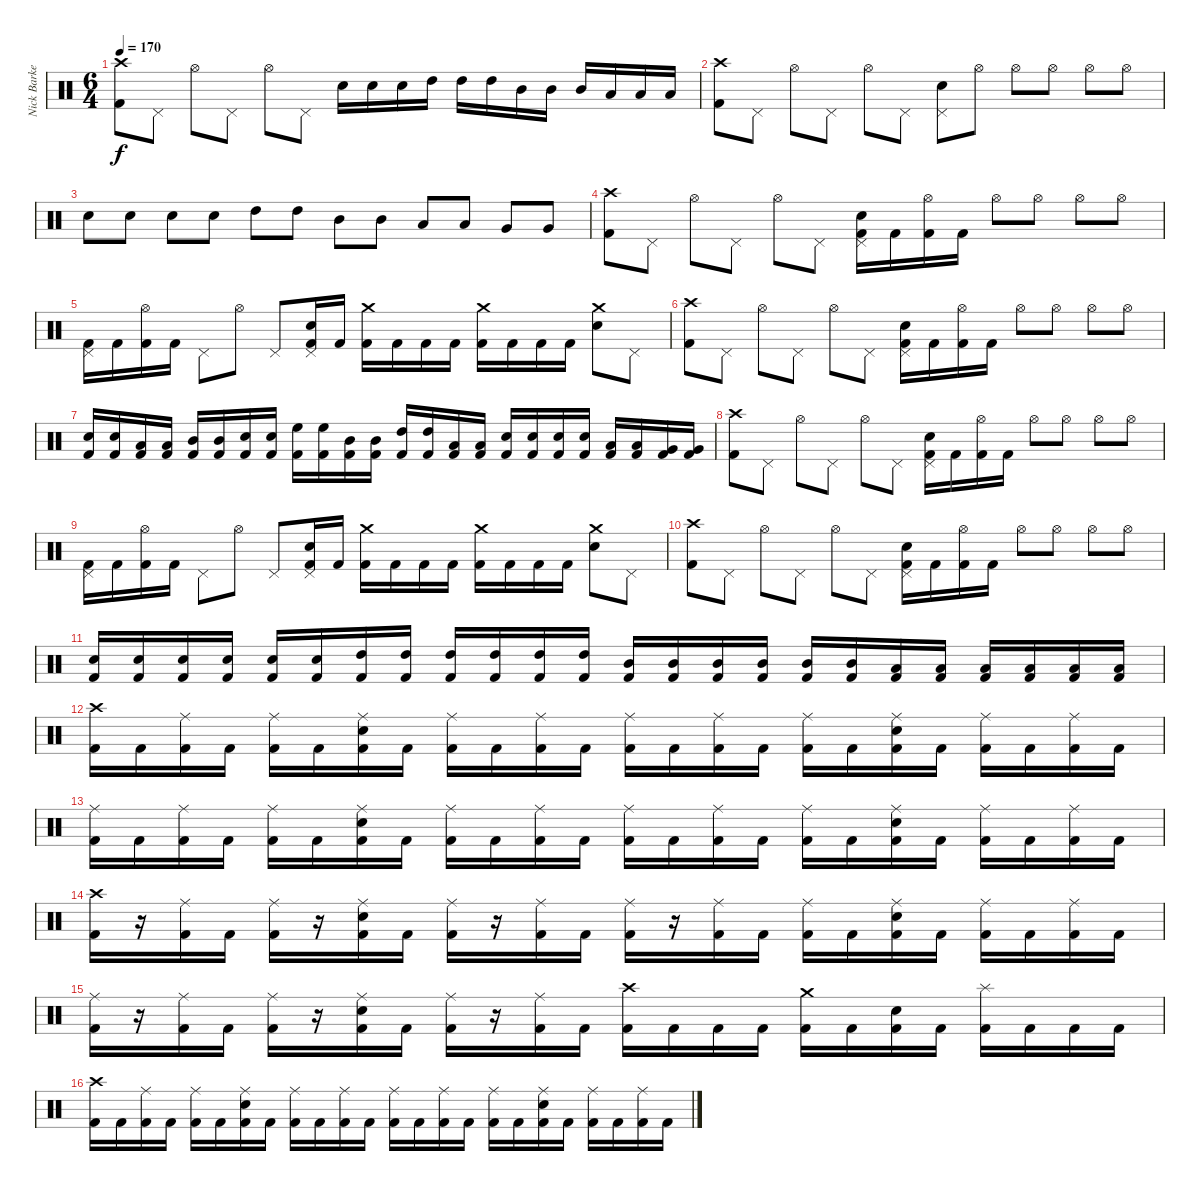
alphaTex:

\track ("Nick Barker" "Nick Barke") {instrument percussion}
\staff {score}
\articulation defaults
\ts (6 4)
\tempo 170
\clef neutral
\ks c
("Crash high (hit)" "Kick (hit) 2").8{dy f} "Pedal Hi-Hat (hit)".8 "Hi-Hat (open)".8 "Pedal Hi-Hat (hit)".8 "Hi-Hat (open)".8 "Pedal Hi-Hat (hit)".8 "Electric Snare (hit)".16 "Electric Snare (hit)".16 "Electric Snare (hit)".16 "High Tom (hit)".16 "High Tom (hit)".16 "High Tom (hit)".16 "Mid Tom (hit)".16 "Mid Tom (hit)".16 "Mid Tom (hit)".16 "Low Tom (hit)".16 "Low Tom (hit)".16 "Low Tom (hit)".16 |
("Crash high (hit)" "Kick (hit) 2").8 "Pedal Hi-Hat (hit)".8 "Hi-Hat (open)".8 "Pedal Hi-Hat (hit)".8 "Hi-Hat (open)".8 "Pedal Hi-Hat (hit)".8 ("Pedal Hi-Hat (hit)" "Electric Snare (hit)").8 "Hi-Hat (open)".8 "Hi-Hat (open)".8 "Hi-Hat (open)".8 "Hi-Hat (open)".8 "Hi-Hat (open)".8 |
"Electric Snare (hit)".8 "Electric Snare (hit)".8 "Electric Snare (hit)".8 "Electric Snare (hit)".8 "High Tom (hit)".8 "High Tom (hit)".8 "Mid Tom (hit)".8 "Mid Tom (hit)".8 "Low Tom (hit)".8 "Low Tom (hit)".8 "Very Low Tom (hit)".8 "Very Low Tom (hit)".8 |
("Crash high (hit)" "Kick (hit) 2").8 "Pedal Hi-Hat (hit)".8 "Hi-Hat (open)".8 "Pedal Hi-Hat (hit)".8 "Hi-Hat (open)".8 "Pedal Hi-Hat (hit)".8 ("Pedal Hi-Hat (hit)" "Electric Snare (hit)" "Kick (hit) 2").16 "Kick (hit) 2".16 ("Hi-Hat (open)" "Kick (hit) 2").16 "Kick (hit) 2".16 "Hi-Hat (open)".8 "Hi-Hat (open)".8 "Hi-Hat (open)".8 "Hi-Hat (open)".8 |
("Pedal Hi-Hat (hit)" "Kick (hit) 2").16 "Kick (hit) 2".16 ("Hi-Hat (open)" "Kick (hit) 2").16 "Kick (hit) 2".16 "Pedal Hi-Hat (hit)".8 "Hi-Hat (open)".8 "Pedal Hi-Hat (hit)".8 ("Pedal Hi-Hat (hit)" "Electric Snare (hit)" "Kick (hit) 2").16 "Kick (hit) 2".16 ("Crash medium (hit)" "Kick (hit) 2").16 "Kick (hit) 2".16 "Kick (hit) 2".16 "Kick (hit) 2".16 ("Crash medium (hit)" "Kick (hit) 2").16 "Kick (hit) 2".16 "Kick (hit) 2".16 "Kick (hit) 2".16 ("Crash medium (hit)" "Electric Snare (hit)").8 "Pedal Hi-Hat (hit)".8 |
("Crash high (hit)" "Kick (hit) 2").8 "Pedal Hi-Hat (hit)".8 "Hi-Hat (open)".8 "Pedal Hi-Hat (hit)".8 "Hi-Hat (open)".8 "Pedal Hi-Hat (hit)".8 ("Pedal Hi-Hat (hit)" "Electric Snare (hit)" "Kick (hit) 2").16 "Kick (hit) 2".16 ("Hi-Hat (open)" "Kick (hit) 2").16 "Kick (hit) 2".16 "Hi-Hat (open)".8 "Hi-Hat (open)".8 "Hi-Hat (open)".8 "Hi-Hat (open)".8 |
("Electric Snare (hit)" "Kick (hit) 2").16 ("Electric Snare (hit)" "Kick (hit) 2").16 ("Low Tom (hit)" "Kick (hit) 2").16 ("Low Tom (hit)" "Kick (hit) 2").16 ("Mid Tom (hit)" "Kick (hit) 2").16 ("Mid Tom (hit)" "Kick (hit) 2").16 ("Electric Snare (hit)" "Kick (hit) 2").16 ("Electric Snare (hit)" "Kick (hit) 2").16 ("High Floor Tom (hit)" "Kick (hit) 2").16 ("High Floor Tom (hit)" "Kick (hit) 2").16 ("Mid Tom (hit)" "Kick (hit) 2").16 ("Mid Tom (hit)" "Kick (hit) 2").16 ("High Tom (hit)" "Kick (hit) 2").16 ("High Tom (hit)" "Kick (hit) 2").16 ("Low Tom (hit)" "Kick (hit) 2").16 ("Low Tom (hit)" "Kick (hit) 2").16 ("Electric Snare (hit)" "Kick (hit) 2").16 ("Electric Snare (hit)" "Kick (hit) 2").16 ("Electric Snare (hit)" "Kick (hit) 2").16 ("Electric Snare (hit)" "Kick (hit) 2").16 ("Low Tom (hit)" "Kick (hit) 2").16 ("Low Tom (hit)" "Kick (hit) 2").16 ("Very Low Tom (hit)" "Kick (hit) 2").16 ("Very Low Tom (hit)" "Kick (hit) 2").16 |
("Crash high (hit)" "Kick (hit) 2").8 "Pedal Hi-Hat (hit)".8 "Hi-Hat (open)".8 "Pedal Hi-Hat (hit)".8 "Hi-Hat (open)".8 "Pedal Hi-Hat (hit)".8 ("Pedal Hi-Hat (hit)" "Electric Snare (hit)" "Kick (hit) 2").16 "Kick (hit) 2".16 ("Hi-Hat (open)" "Kick (hit) 2").16 "Kick (hit) 2".16 "Hi-Hat (open)".8 "Hi-Hat (open)".8 "Hi-Hat (open)".8 "Hi-Hat (open)".8 |
("Pedal Hi-Hat (hit)" "Kick (hit) 2").16 "Kick (hit) 2".16 ("Hi-Hat (open)" "Kick (hit) 2").16 "Kick (hit) 2".16 "Pedal Hi-Hat (hit)".8 "Hi-Hat (open)".8 "Pedal Hi-Hat (hit)".8 ("Pedal Hi-Hat (hit)" "Electric Snare (hit)" "Kick (hit) 2").16 "Kick (hit) 2".16 ("Crash medium (hit)" "Kick (hit) 2").16 "Kick (hit) 2".16 "Kick (hit) 2".16 "Kick (hit) 2".16 ("Crash medium (hit)" "Kick (hit) 2").16 "Kick (hit) 2".16 "Kick (hit) 2".16 "Kick (hit) 2".16 ("Crash medium (hit)" "Electric Snare (hit)").8 "Pedal Hi-Hat (hit)".8 |
("Crash high (hit)" "Kick (hit) 2").8 "Pedal Hi-Hat (hit)".8 "Hi-Hat (open)".8 "Pedal Hi-Hat (hit)".8 "Hi-Hat (open)".8 "Pedal Hi-Hat (hit)".8 ("Pedal Hi-Hat (hit)" "Electric Snare (hit)" "Kick (hit) 2").16 "Kick (hit) 2".16 ("Hi-Hat (open)" "Kick (hit) 2").16 "Kick (hit) 2".16 "Hi-Hat (open)".8 "Hi-Hat (open)".8 "Hi-Hat (open)".8 "Hi-Hat (open)".8 |
("Electric Snare (hit)" "Kick (hit) 2").16 ("Electric Snare (hit)" "Kick (hit) 2").16 ("Electric Snare (hit)" "Kick (hit) 2").16 ("Electric Snare (hit)" "Kick (hit) 2").16 ("Electric Snare (hit)" "Kick (hit) 2").16 ("Electric Snare (hit)" "Kick (hit) 2").16 ("High Tom (hit)" "Kick (hit) 2").16 ("High Tom (hit)" "Kick (hit) 2").16 ("High Tom (hit)" "Kick (hit) 2").16 ("High Tom (hit)" "Kick (hit) 2").16 ("High Tom (hit)" "Kick (hit) 2").16 ("High Tom (hit)" "Kick (hit) 2").16 ("Mid Tom (hit)" "Kick (hit) 2").16 ("Mid Tom (hit)" "Kick (hit) 2").16 ("Mid Tom (hit)" "Kick (hit) 2").16 ("Mid Tom (hit)" "Kick (hit) 2").16 ("Mid Tom (hit)" "Kick (hit) 2").16 ("Mid Tom (hit)" "Kick (hit) 2").16 ("Low Tom (hit)" "Kick (hit) 2").16 ("Low Tom (hit)" "Kick (hit) 2").16 ("Low Tom (hit)" "Kick (hit) 2").16 ("Low Tom (hit)" "Kick (hit) 2").16 ("Low Tom (hit)" "Kick (hit) 2").16 ("Low Tom (hit)" "Kick (hit) 2").16 |
("Crash high (hit)" "Kick (hit) 2").16 "Kick (hit) 2".16 ("Ride (middle)" "Kick (hit) 2").16 "Kick (hit) 2".16 ("Ride (middle)" "Kick (hit) 2").16 "Kick (hit) 2".16 ("Ride (middle)" "Electric Snare (hit)" "Kick (hit) 2").16 "Kick (hit) 2".16 ("Ride (middle)" "Kick (hit) 2").16 "Kick (hit) 2".16 ("Ride (middle)" "Kick (hit) 2").16 "Kick (hit) 2".16 ("Ride (middle)" "Kick (hit) 2").16 "Kick (hit) 2".16 ("Ride (middle)" "Kick (hit) 2").16 "Kick (hit) 2".16 ("Ride (middle)" "Kick (hit) 2").16 "Kick (hit) 2".16 ("Ride (middle)" "Electric Snare (hit)" "Kick (hit) 2").16 "Kick (hit) 2".16 ("Ride (middle)" "Kick (hit) 2").16 "Kick (hit) 2".16 ("Ride (middle)" "Kick (hit) 2").16 "Kick (hit) 2".16 |
("Ride (middle)" "Kick (hit) 2").16 "Kick (hit) 2".16 ("Ride (middle)" "Kick (hit) 2").16 "Kick (hit) 2".16 ("Ride (middle)" "Kick (hit) 2").16 "Kick (hit) 2".16 ("Ride (middle)" "Electric Snare (hit)" "Kick (hit) 2").16 "Kick (hit) 2".16 ("Ride (middle)" "Kick (hit) 2").16 "Kick (hit) 2".16 ("Ride (middle)" "Kick (hit) 2").16 "Kick (hit) 2".16 ("Ride (middle)" "Kick (hit) 2").16 "Kick (hit) 2".16 ("Ride (middle)" "Kick (hit) 2").16 "Kick (hit) 2".16 ("Ride (middle)" "Kick (hit) 2").16 "Kick (hit) 2".16 ("Ride (middle)" "Electric Snare (hit)" "Kick (hit) 2").16 "Kick (hit) 2".16 ("Ride (middle)" "Kick (hit) 2").16 "Kick (hit) 2".16 ("Ride (middle)" "Kick (hit) 2").16 "Kick (hit) 2".16 |
("Crash high (hit)" "Kick (hit) 2").16 r.16 ("Ride (middle)" "Kick (hit) 2").16 "Kick (hit) 2".16 ("Ride (middle)" "Kick (hit) 2").16 r.16 ("Ride (middle)" "Electric Snare (hit)" "Kick (hit) 2").16 "Kick (hit) 2".16 ("Ride (middle)" "Kick (hit) 2").16 r.16 ("Ride (middle)" "Kick (hit) 2").16 "Kick (hit) 2".16 ("Ride (middle)" "Kick (hit) 2").16 r.16 ("Ride (middle)" "Kick (hit) 2").16 "Kick (hit) 2".16 ("Ride (middle)" "Kick (hit) 2").16 "Kick (hit) 2".16 ("Ride (middle)" "Electric Snare (hit)" "Kick (hit) 2").16 "Kick (hit) 2".16 ("Ride (middle)" "Kick (hit) 2").16 "Kick (hit) 2".16 ("Ride (middle)" "Kick (hit) 2").16 "Kick (hit) 2".16 |
("Ride (middle)" "Kick (hit) 2").16 r.16 ("Ride (middle)" "Kick (hit) 2").16 "Kick (hit) 2".16 ("Ride (middle)" "Kick (hit) 2").16 r.16 ("Ride (middle)" "Electric Snare (hit)" "Kick (hit) 2").16 "Kick (hit) 2".16 ("Ride (middle)" "Kick (hit) 2").16 r.16 ("Ride (middle)" "Kick (hit) 2").16 "Kick (hit) 2".16 ("Crash high (hit)" "Kick (hit) 2").16 "Kick (hit) 2".16 "Kick (hit) 2".16 "Kick (hit) 2".16 ("Crash medium (hit)" "Kick (hit) 2").16 "Kick (hit) 2".16 ("Electric Snare (hit)" "Kick (hit) 2").16 "Kick (hit) 2".16 ("Splash (hit)" "Kick (hit) 2").16 "Kick (hit) 2".16 "Kick (hit) 2".16 "Kick (hit) 2".16 |
("Crash high (hit)" "Kick (hit) 2").16 "Kick (hit) 2".16 ("Ride (middle)" "Kick (hit) 2").16 "Kick (hit) 2".16 ("Ride (middle)" "Kick (hit) 2").16 "Kick (hit) 2".16 ("Ride (middle)" "Electric Snare (hit)" "Kick (hit) 2").16 "Kick (hit) 2".16 ("Ride (middle)" "Kick (hit) 2").16 "Kick (hit) 2".16 ("Ride (middle)" "Kick (hit) 2").16 "Kick (hit) 2".16 ("Ride (middle)" "Kick (hit) 2").16 "Kick (hit) 2".16 ("Ride (middle)" "Kick (hit) 2").16 "Kick (hit) 2".16 ("Ride (middle)" "Kick (hit) 2").16 "Kick (hit) 2".16 ("Ride (middle)" "Electric Snare (hit)" "Kick (hit) 2").16 "Kick (hit) 2".16 ("Ride (middle)" "Kick (hit) 2").16 "Kick (hit) 2".16 ("Ride (middle)" "Kick (hit) 2").16 "Kick (hit) 2".16
